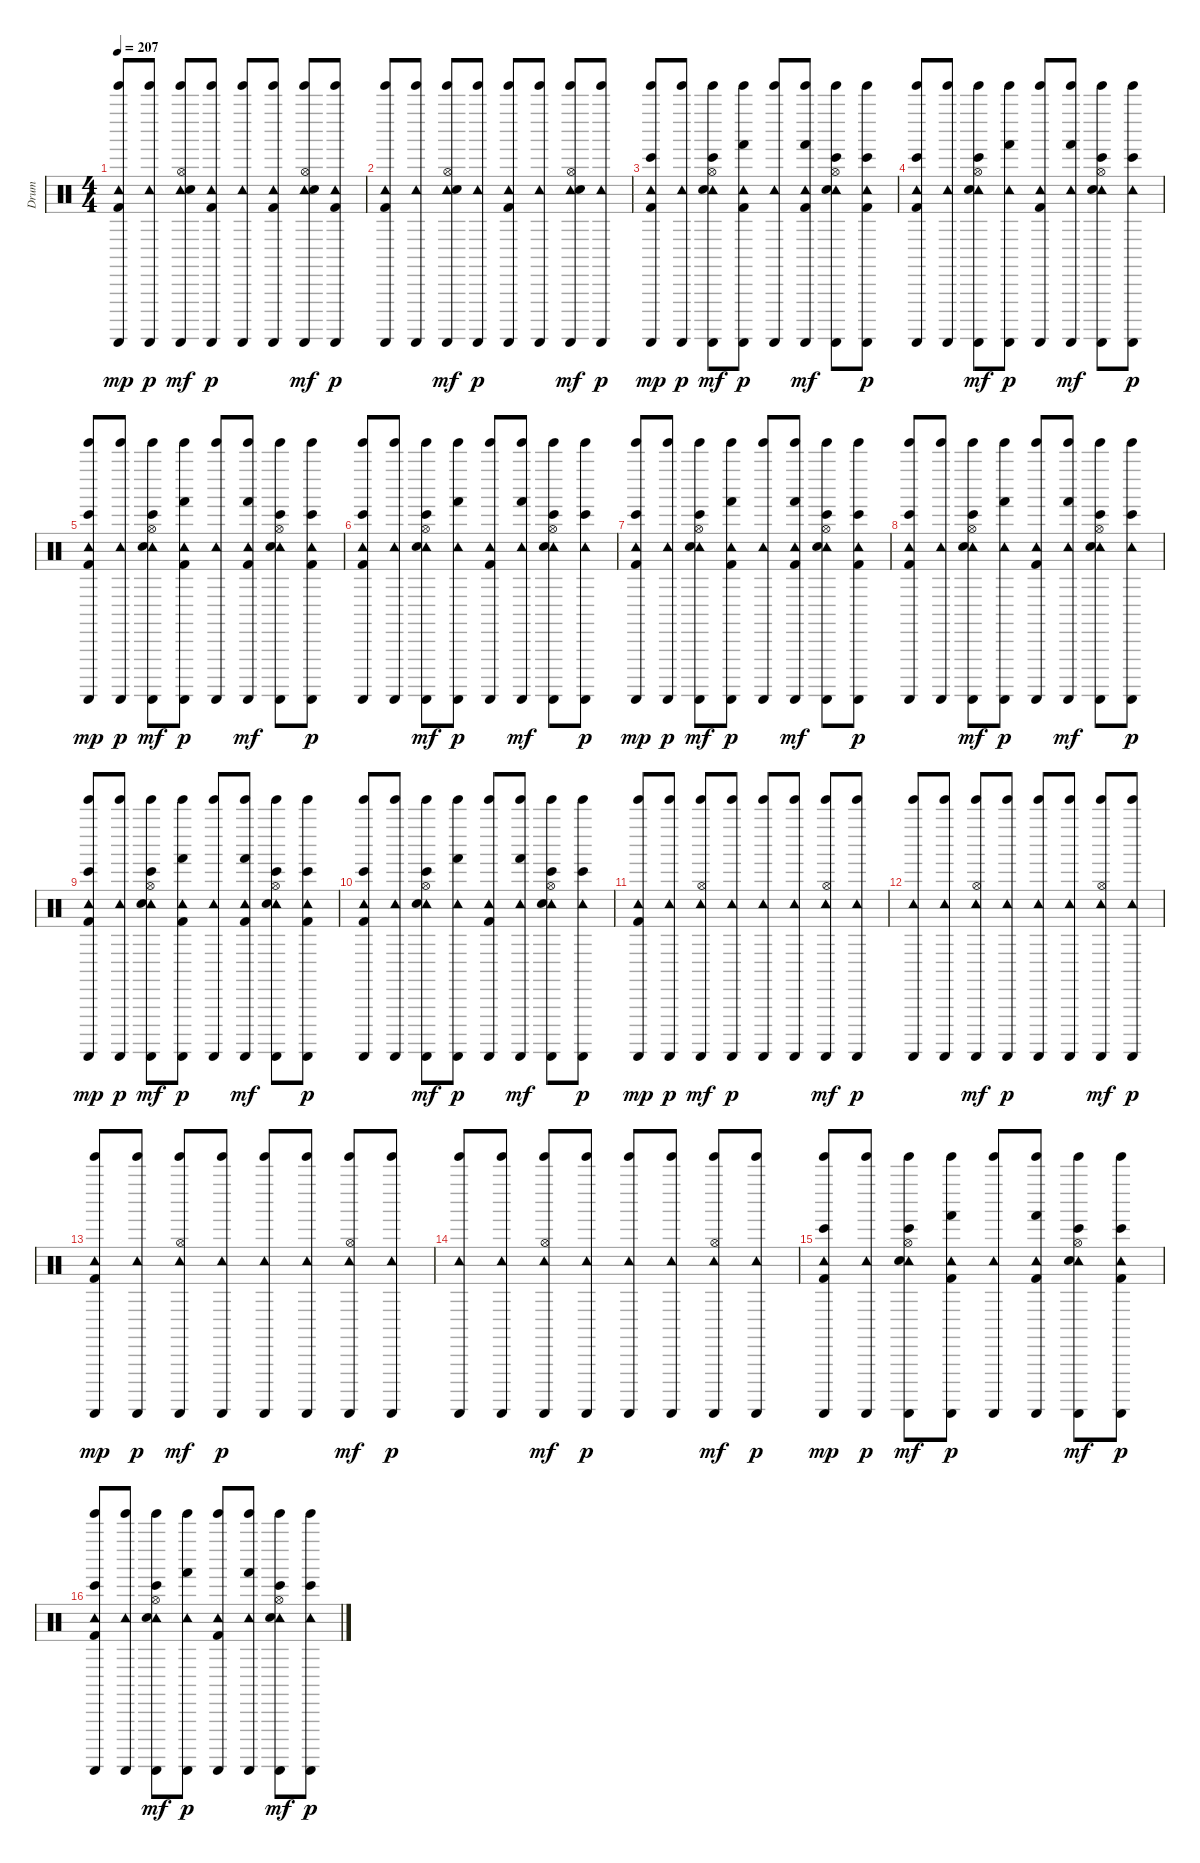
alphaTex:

\track ("Drum" "Drum") {instrument percussion}
\staff {score}
\articulation defaults
\ts (4 4)
\tempo 207
\clef neutral
\ks c
("Tambourine (hit)" "Kick (hit) 2" "Tinkle Bell (hit)" "Guiro (scrap-return)").8{dy mp} ("Tambourine (hit)" "Tinkle Bell (hit)" "Guiro (scrap-return)").8{dy p} ("Tambourine (hit)" "Hi-Hat (open)" "Snare (hit) 2" "Tinkle Bell (hit)" "Guiro (scrap-return)").8{dy mf} ("Tambourine (hit)" "Kick (hit) 2" "Tinkle Bell (hit)" "Guiro (scrap-return)").8{dy p} ("Tambourine (hit)" "Tinkle Bell (hit)" "Guiro (scrap-return)").8 ("Tambourine (hit)" "Kick (hit) 2" "Tinkle Bell (hit)" "Guiro (scrap-return)").8 ("Tambourine (hit)" "Hi-Hat (open)" "Snare (hit) 2" "Tinkle Bell (hit)" "Guiro (scrap-return)").8{dy mf} ("Tambourine (hit)" "Kick (hit) 2" "Tinkle Bell (hit)" "Guiro (scrap-return)").8{dy p} |
("Tambourine (hit)" "Kick (hit) 2" "Tinkle Bell (hit)" "Guiro (scrap-return)").8 ("Tambourine (hit)" "Tinkle Bell (hit)" "Guiro (scrap-return)").8 ("Tambourine (hit)" "Hi-Hat (open)" "Snare (hit) 2" "Tinkle Bell (hit)" "Guiro (scrap-return)").8{dy mf} ("Tambourine (hit)" "Tinkle Bell (hit)" "Guiro (scrap-return)").8{dy p} ("Tambourine (hit)" "Kick (hit) 2" "Tinkle Bell (hit)" "Guiro (scrap-return)").8 ("Tambourine (hit)" "Tinkle Bell (hit)" "Guiro (scrap-return)").8 ("Tambourine (hit)" "Hi-Hat (open)" "Snare (hit) 2" "Tinkle Bell (hit)" "Guiro (scrap-return)").8{dy mf} ("Tambourine (hit)" "Tinkle Bell (hit)" "Guiro (scrap-return)").8{dy p} |
("Tambourine (hit)" "Kick (hit) 2" "Tinkle Bell (hit)" "Guiro (scrap-return)" "Bongo High (hit)").8{dy mp} ("Tambourine (hit)" "Tinkle Bell (hit)" "Guiro (scrap-return)").8{dy p} ("Tambourine (hit)" "Hi-Hat (open)" "Snare (hit) 2" "Tinkle Bell (hit)" "Guiro (scrap-return)" "Bongo High (hit)").8{dy mf} ("Tambourine (hit)" "Kick (hit) 2" "Tinkle Bell (hit)" "Guiro (scrap-return)" "Hand (hit)").8{dy p} ("Tambourine (hit)" "Tinkle Bell (hit)" "Guiro (scrap-return)").8 ("Tambourine (hit)" "Kick (hit) 2" "Tinkle Bell (hit)" "Guiro (scrap-return)" "Hand (hit)").8{dy mf} ("Tambourine (hit)" "Hi-Hat (open)" "Snare (hit) 2" "Tinkle Bell (hit)" "Guiro (scrap-return)" "Bongo High (hit)").8 ("Tambourine (hit)" "Kick (hit) 2" "Tinkle Bell (hit)" "Guiro (scrap-return)" "Bongo High (hit)").8{dy p} |
("Tambourine (hit)" "Kick (hit) 2" "Tinkle Bell (hit)" "Guiro (scrap-return)" "Bongo High (hit)").8 ("Tambourine (hit)" "Tinkle Bell (hit)" "Guiro (scrap-return)").8 ("Tambourine (hit)" "Hi-Hat (open)" "Snare (hit) 2" "Tinkle Bell (hit)" "Guiro (scrap-return)" "Bongo High (hit)").8{dy mf} ("Tambourine (hit)" "Tinkle Bell (hit)" "Guiro (scrap-return)" "Hand (hit)").8{dy p} ("Tambourine (hit)" "Kick (hit) 2" "Tinkle Bell (hit)" "Guiro (scrap-return)").8 ("Tambourine (hit)" "Tinkle Bell (hit)" "Guiro (scrap-return)" "Hand (hit)").8{dy mf} ("Tambourine (hit)" "Hi-Hat (open)" "Snare (hit) 2" "Tinkle Bell (hit)" "Guiro (scrap-return)" "Bongo High (hit)").8 ("Tambourine (hit)" "Tinkle Bell (hit)" "Guiro (scrap-return)" "Bongo High (hit)").8{dy p} |
("Tambourine (hit)" "Kick (hit) 2" "Tinkle Bell (hit)" "Guiro (scrap-return)" "Bongo High (hit)").8{dy mp} ("Tambourine (hit)" "Tinkle Bell (hit)" "Guiro (scrap-return)").8{dy p} ("Tambourine (hit)" "Hi-Hat (open)" "Snare (hit) 2" "Tinkle Bell (hit)" "Guiro (scrap-return)" "Bongo High (hit)").8{dy mf} ("Tambourine (hit)" "Kick (hit) 2" "Tinkle Bell (hit)" "Guiro (scrap-return)" "Hand (hit)").8{dy p} ("Tambourine (hit)" "Tinkle Bell (hit)" "Guiro (scrap-return)").8 ("Tambourine (hit)" "Kick (hit) 2" "Tinkle Bell (hit)" "Guiro (scrap-return)" "Hand (hit)").8{dy mf} ("Tambourine (hit)" "Hi-Hat (open)" "Snare (hit) 2" "Tinkle Bell (hit)" "Guiro (scrap-return)" "Bongo High (hit)").8 ("Tambourine (hit)" "Kick (hit) 2" "Tinkle Bell (hit)" "Guiro (scrap-return)" "Bongo High (hit)").8{dy p} |
("Tambourine (hit)" "Kick (hit) 2" "Tinkle Bell (hit)" "Guiro (scrap-return)" "Bongo High (hit)").8 ("Tambourine (hit)" "Tinkle Bell (hit)" "Guiro (scrap-return)").8 ("Tambourine (hit)" "Hi-Hat (open)" "Snare (hit) 2" "Tinkle Bell (hit)" "Guiro (scrap-return)" "Bongo High (hit)").8{dy mf} ("Tambourine (hit)" "Tinkle Bell (hit)" "Guiro (scrap-return)" "Hand (hit)").8{dy p} ("Tambourine (hit)" "Kick (hit) 2" "Tinkle Bell (hit)" "Guiro (scrap-return)").8 ("Tambourine (hit)" "Tinkle Bell (hit)" "Guiro (scrap-return)" "Hand (hit)").8{dy mf} ("Tambourine (hit)" "Hi-Hat (open)" "Snare (hit) 2" "Tinkle Bell (hit)" "Guiro (scrap-return)" "Bongo High (hit)").8 ("Tambourine (hit)" "Tinkle Bell (hit)" "Guiro (scrap-return)" "Bongo High (hit)").8{dy p} |
("Tambourine (hit)" "Kick (hit) 2" "Tinkle Bell (hit)" "Guiro (scrap-return)" "Bongo High (hit)").8{dy mp} ("Tambourine (hit)" "Tinkle Bell (hit)" "Guiro (scrap-return)").8{dy p} ("Tambourine (hit)" "Hi-Hat (open)" "Snare (hit) 2" "Tinkle Bell (hit)" "Guiro (scrap-return)" "Bongo High (hit)").8{dy mf} ("Tambourine (hit)" "Kick (hit) 2" "Tinkle Bell (hit)" "Guiro (scrap-return)" "Hand (hit)").8{dy p} ("Tambourine (hit)" "Tinkle Bell (hit)" "Guiro (scrap-return)").8 ("Tambourine (hit)" "Kick (hit) 2" "Tinkle Bell (hit)" "Guiro (scrap-return)" "Hand (hit)").8{dy mf} ("Tambourine (hit)" "Hi-Hat (open)" "Snare (hit) 2" "Tinkle Bell (hit)" "Guiro (scrap-return)" "Bongo High (hit)").8 ("Tambourine (hit)" "Kick (hit) 2" "Tinkle Bell (hit)" "Guiro (scrap-return)" "Bongo High (hit)").8{dy p} |
("Tambourine (hit)" "Kick (hit) 2" "Tinkle Bell (hit)" "Guiro (scrap-return)" "Bongo High (hit)").8 ("Tambourine (hit)" "Tinkle Bell (hit)" "Guiro (scrap-return)").8 ("Tambourine (hit)" "Hi-Hat (open)" "Snare (hit) 2" "Tinkle Bell (hit)" "Guiro (scrap-return)" "Bongo High (hit)").8{dy mf} ("Tambourine (hit)" "Tinkle Bell (hit)" "Guiro (scrap-return)" "Hand (hit)").8{dy p} ("Tambourine (hit)" "Kick (hit) 2" "Tinkle Bell (hit)" "Guiro (scrap-return)").8 ("Tambourine (hit)" "Tinkle Bell (hit)" "Guiro (scrap-return)" "Hand (hit)").8{dy mf} ("Tambourine (hit)" "Hi-Hat (open)" "Snare (hit) 2" "Tinkle Bell (hit)" "Guiro (scrap-return)" "Bongo High (hit)").8 ("Tambourine (hit)" "Tinkle Bell (hit)" "Guiro (scrap-return)" "Bongo High (hit)").8{dy p} |
("Tambourine (hit)" "Kick (hit) 2" "Tinkle Bell (hit)" "Guiro (scrap-return)" "Bongo High (hit)").8{dy mp} ("Tambourine (hit)" "Tinkle Bell (hit)" "Guiro (scrap-return)").8{dy p} ("Tambourine (hit)" "Hi-Hat (open)" "Snare (hit) 2" "Tinkle Bell (hit)" "Guiro (scrap-return)" "Bongo High (hit)").8{dy mf} ("Tambourine (hit)" "Kick (hit) 2" "Tinkle Bell (hit)" "Guiro (scrap-return)" "Hand (hit)").8{dy p} ("Tambourine (hit)" "Tinkle Bell (hit)" "Guiro (scrap-return)").8 ("Tambourine (hit)" "Kick (hit) 2" "Tinkle Bell (hit)" "Guiro (scrap-return)" "Hand (hit)").8{dy mf} ("Tambourine (hit)" "Hi-Hat (open)" "Snare (hit) 2" "Tinkle Bell (hit)" "Guiro (scrap-return)" "Bongo High (hit)").8 ("Tambourine (hit)" "Kick (hit) 2" "Tinkle Bell (hit)" "Guiro (scrap-return)" "Bongo High (hit)").8{dy p} |
("Tambourine (hit)" "Kick (hit) 2" "Tinkle Bell (hit)" "Guiro (scrap-return)" "Bongo High (hit)").8 ("Tambourine (hit)" "Tinkle Bell (hit)" "Guiro (scrap-return)").8 ("Tambourine (hit)" "Hi-Hat (open)" "Snare (hit) 2" "Tinkle Bell (hit)" "Guiro (scrap-return)" "Bongo High (hit)").8{dy mf} ("Tambourine (hit)" "Tinkle Bell (hit)" "Guiro (scrap-return)" "Hand (hit)").8{dy p} ("Tambourine (hit)" "Kick (hit) 2" "Tinkle Bell (hit)" "Guiro (scrap-return)").8 ("Tambourine (hit)" "Tinkle Bell (hit)" "Guiro (scrap-return)" "Hand (hit)").8{dy mf} ("Tambourine (hit)" "Hi-Hat (open)" "Snare (hit) 2" "Tinkle Bell (hit)" "Guiro (scrap-return)" "Bongo High (hit)").8 ("Tambourine (hit)" "Tinkle Bell (hit)" "Guiro (scrap-return)" "Bongo High (hit)").8{dy p} |
("Tambourine (hit)" "Kick (hit) 2" "Tinkle Bell (hit)" "Guiro (scrap-return)").8{dy mp} ("Tambourine (hit)" "Tinkle Bell (hit)" "Guiro (scrap-return)").8{dy p} ("Tambourine (hit)" "Hi-Hat (open)" "Tinkle Bell (hit)" "Guiro (scrap-return)").8{dy mf} ("Tambourine (hit)" "Tinkle Bell (hit)" "Guiro (scrap-return)").8{dy p} ("Tambourine (hit)" "Tinkle Bell (hit)" "Guiro (scrap-return)").8 ("Tambourine (hit)" "Tinkle Bell (hit)" "Guiro (scrap-return)").8 ("Tambourine (hit)" "Hi-Hat (open)" "Tinkle Bell (hit)" "Guiro (scrap-return)").8{dy mf} ("Tambourine (hit)" "Tinkle Bell (hit)" "Guiro (scrap-return)").8{dy p} |
("Tambourine (hit)" "Tinkle Bell (hit)" "Guiro (scrap-return)").8 ("Tambourine (hit)" "Tinkle Bell (hit)" "Guiro (scrap-return)").8 ("Tambourine (hit)" "Hi-Hat (open)" "Tinkle Bell (hit)" "Guiro (scrap-return)").8{dy mf} ("Tambourine (hit)" "Tinkle Bell (hit)" "Guiro (scrap-return)").8{dy p} ("Tambourine (hit)" "Tinkle Bell (hit)" "Guiro (scrap-return)").8 ("Tambourine (hit)" "Tinkle Bell (hit)" "Guiro (scrap-return)").8 ("Tambourine (hit)" "Hi-Hat (open)" "Tinkle Bell (hit)" "Guiro (scrap-return)").8{dy mf} ("Tambourine (hit)" "Tinkle Bell (hit)" "Guiro (scrap-return)").8{dy p} |
("Tambourine (hit)" "Kick (hit) 2" "Tinkle Bell (hit)" "Guiro (scrap-return)").8{dy mp} ("Tambourine (hit)" "Tinkle Bell (hit)" "Guiro (scrap-return)").8{dy p} ("Tambourine (hit)" "Hi-Hat (open)" "Tinkle Bell (hit)" "Guiro (scrap-return)").8{dy mf} ("Tambourine (hit)" "Tinkle Bell (hit)" "Guiro (scrap-return)").8{dy p} ("Tambourine (hit)" "Tinkle Bell (hit)" "Guiro (scrap-return)").8 ("Tambourine (hit)" "Tinkle Bell (hit)" "Guiro (scrap-return)").8 ("Tambourine (hit)" "Hi-Hat (open)" "Tinkle Bell (hit)" "Guiro (scrap-return)").8{dy mf} ("Tambourine (hit)" "Tinkle Bell (hit)" "Guiro (scrap-return)").8{dy p} |
("Tambourine (hit)" "Tinkle Bell (hit)" "Guiro (scrap-return)").8 ("Tambourine (hit)" "Tinkle Bell (hit)" "Guiro (scrap-return)").8 ("Tambourine (hit)" "Hi-Hat (open)" "Tinkle Bell (hit)" "Guiro (scrap-return)").8{dy mf} ("Tambourine (hit)" "Tinkle Bell (hit)" "Guiro (scrap-return)").8{dy p} ("Tambourine (hit)" "Tinkle Bell (hit)" "Guiro (scrap-return)").8 ("Tambourine (hit)" "Tinkle Bell (hit)" "Guiro (scrap-return)").8 ("Tambourine (hit)" "Hi-Hat (open)" "Tinkle Bell (hit)" "Guiro (scrap-return)").8{dy mf} ("Tambourine (hit)" "Tinkle Bell (hit)" "Guiro (scrap-return)").8{dy p} |
("Tambourine (hit)" "Kick (hit) 2" "Bongo High (hit)" "Tinkle Bell (hit)" "Guiro (scrap-return)").8{dy mp} ("Tambourine (hit)" "Tinkle Bell (hit)" "Guiro (scrap-return)").8{dy p} ("Tambourine (hit)" "Hi-Hat (open)" "Snare (hit) 2" "Bongo High (hit)" "Tinkle Bell (hit)" "Guiro (scrap-return)").8{dy mf} ("Tambourine (hit)" "Kick (hit) 2" "Hand (hit)" "Tinkle Bell (hit)" "Guiro (scrap-return)").8{dy p} ("Tambourine (hit)" "Tinkle Bell (hit)" "Guiro (scrap-return)").8 ("Tambourine (hit)" "Kick (hit) 2" "Hand (hit)" "Tinkle Bell (hit)" "Guiro (scrap-return)").8 ("Tambourine (hit)" "Hi-Hat (open)" "Snare (hit) 2" "Bongo High (hit)" "Tinkle Bell (hit)" "Guiro (scrap-return)").8{dy mf} ("Tambourine (hit)" "Kick (hit) 2" "Bongo High (hit)" "Tinkle Bell (hit)" "Guiro (scrap-return)").8{dy p} |
("Tambourine (hit)" "Kick (hit) 2" "Bongo High (hit)" "Tinkle Bell (hit)" "Guiro (scrap-return)").8 ("Tambourine (hit)" "Tinkle Bell (hit)" "Guiro (scrap-return)").8 ("Tambourine (hit)" "Hi-Hat (open)" "Snare (hit) 2" "Bongo High (hit)" "Tinkle Bell (hit)" "Guiro (scrap-return)").8{dy mf} ("Tambourine (hit)" "Hand (hit)" "Tinkle Bell (hit)" "Guiro (scrap-return)").8{dy p} ("Tambourine (hit)" "Kick (hit) 2" "Tinkle Bell (hit)" "Guiro (scrap-return)").8 ("Tambourine (hit)" "Hand (hit)" "Tinkle Bell (hit)" "Guiro (scrap-return)").8 ("Tambourine (hit)" "Hi-Hat (open)" "Snare (hit) 2" "Bongo High (hit)" "Tinkle Bell (hit)" "Guiro (scrap-return)").8{dy mf} ("Tambourine (hit)" "Bongo High (hit)" "Tinkle Bell (hit)" "Guiro (scrap-return)").8{dy p}
